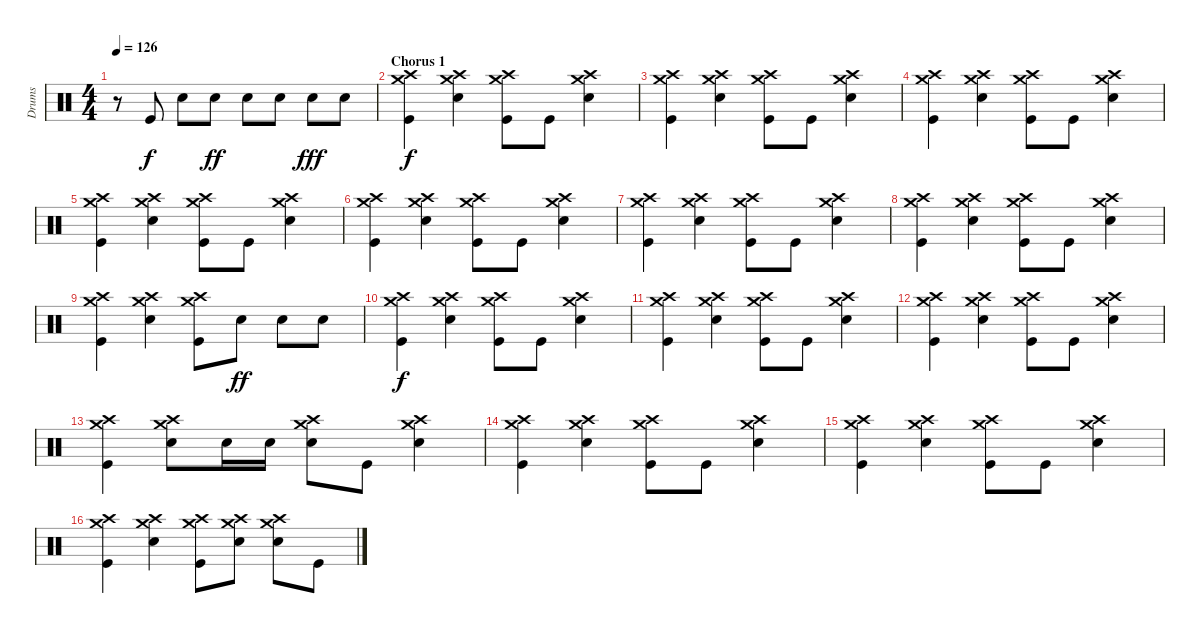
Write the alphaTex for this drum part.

\track ("Drums" "Drums") {instrument percussion}
\staff {score}
\articulation defaults
\ts (4 4)
\tempo 126
\clef neutral
\ks c
r.8{dy f} "Kick (hit)".8 "Snare (hit) 2".8 "Snare (hit) 2".8{dy ff} "Snare (hit) 2".8 "Snare (hit) 2".8 "Snare (hit) 2".8{dy fff} "Snare (hit) 2".8 |
\section ("" "Chorus 1")
("Crash high (hit)" "Crash medium (hit)" "Kick (hit)").4{dy f} ("Crash high (hit)" "Crash medium (hit)" "Snare (hit) 2").4 ("Crash high (hit)" "Crash medium (hit)" "Kick (hit)").8 "Kick (hit)".8 ("Crash high (hit)" "Crash medium (hit)" "Snare (hit) 2").4 |
("Crash high (hit)" "Crash medium (hit)" "Kick (hit)").4 ("Crash high (hit)" "Crash medium (hit)" "Snare (hit) 2").4 ("Crash high (hit)" "Crash medium (hit)" "Kick (hit)").8 "Kick (hit)".8 ("Crash high (hit)" "Crash medium (hit)" "Snare (hit) 2").4 |
("Crash high (hit)" "Crash medium (hit)" "Kick (hit)").4 ("Crash high (hit)" "Crash medium (hit)" "Snare (hit) 2").4 ("Crash high (hit)" "Crash medium (hit)" "Kick (hit)").8 "Kick (hit)".8 ("Crash high (hit)" "Crash medium (hit)" "Snare (hit) 2").4 |
("Crash high (hit)" "Crash medium (hit)" "Kick (hit)").4 ("Crash high (hit)" "Crash medium (hit)" "Snare (hit) 2").4 ("Crash high (hit)" "Crash medium (hit)" "Kick (hit)").8 "Kick (hit)".8 ("Crash high (hit)" "Crash medium (hit)" "Snare (hit) 2").4 |
("Crash high (hit)" "Crash medium (hit)" "Kick (hit)").4 ("Crash high (hit)" "Crash medium (hit)" "Snare (hit) 2").4 ("Crash high (hit)" "Crash medium (hit)" "Kick (hit)").8 "Kick (hit)".8 ("Crash high (hit)" "Crash medium (hit)" "Snare (hit) 2").4 |
("Crash high (hit)" "Crash medium (hit)" "Kick (hit)").4 ("Crash high (hit)" "Crash medium (hit)" "Snare (hit) 2").4 ("Crash high (hit)" "Crash medium (hit)" "Kick (hit)").8 "Kick (hit)".8 ("Crash high (hit)" "Crash medium (hit)" "Snare (hit) 2").4 |
("Crash high (hit)" "Crash medium (hit)" "Kick (hit)").4 ("Crash high (hit)" "Crash medium (hit)" "Snare (hit) 2").4 ("Crash high (hit)" "Crash medium (hit)" "Kick (hit)").8 "Kick (hit)".8 ("Crash high (hit)" "Crash medium (hit)" "Snare (hit) 2").4 |
("Crash high (hit)" "Crash medium (hit)" "Kick (hit)").4 ("Crash high (hit)" "Crash medium (hit)" "Snare (hit) 2").4 ("Crash high (hit)" "Crash medium (hit)" "Kick (hit)").8 "Snare (hit) 2".8{dy ff} "Snare (hit) 2".8 "Snare (hit) 2".8 |
("Crash high (hit)" "Crash medium (hit)" "Kick (hit)").4{dy f} ("Crash high (hit)" "Crash medium (hit)" "Snare (hit) 2").4 ("Crash high (hit)" "Crash medium (hit)" "Kick (hit)").8 "Kick (hit)".8 ("Crash high (hit)" "Crash medium (hit)" "Snare (hit) 2").4 |
("Crash high (hit)" "Crash medium (hit)" "Kick (hit)").4 ("Crash high (hit)" "Crash medium (hit)" "Snare (hit) 2").4 ("Crash high (hit)" "Crash medium (hit)" "Kick (hit)").8 "Kick (hit)".8 ("Crash high (hit)" "Crash medium (hit)" "Snare (hit) 2").4 |
("Crash high (hit)" "Crash medium (hit)" "Kick (hit)").4 ("Crash high (hit)" "Crash medium (hit)" "Snare (hit) 2").4 ("Crash high (hit)" "Crash medium (hit)" "Kick (hit)").8 "Kick (hit)".8 ("Crash high (hit)" "Crash medium (hit)" "Snare (hit) 2").4 |
("Crash high (hit)" "Crash medium (hit)" "Kick (hit)").4 ("Crash high (hit)" "Crash medium (hit)" "Snare (hit) 2").8 "Snare (hit) 2".16 "Snare (hit) 2".16 ("Crash high (hit)" "Crash medium (hit)" "Snare (hit) 2").8 "Kick (hit)".8 ("Crash high (hit)" "Crash medium (hit)" "Snare (hit) 2").4 |
("Crash high (hit)" "Crash medium (hit)" "Kick (hit)").4 ("Crash high (hit)" "Crash medium (hit)" "Snare (hit) 2").4 ("Crash high (hit)" "Crash medium (hit)" "Kick (hit)").8 "Kick (hit)".8 ("Crash high (hit)" "Crash medium (hit)" "Snare (hit) 2").4 |
("Crash high (hit)" "Crash medium (hit)" "Kick (hit)").4 ("Crash high (hit)" "Crash medium (hit)" "Snare (hit) 2").4 ("Crash high (hit)" "Crash medium (hit)" "Kick (hit)").8 "Kick (hit)".8 ("Crash high (hit)" "Crash medium (hit)" "Snare (hit) 2").4 |
("Crash high (hit)" "Crash medium (hit)" "Kick (hit)").4 ("Crash high (hit)" "Crash medium (hit)" "Snare (hit) 2").4 ("Crash high (hit)" "Crash medium (hit)" "Kick (hit)").8 ("Crash high (hit)" "Crash medium (hit)" "Snare (hit) 2").8 ("Crash high (hit)" "Crash medium (hit)" "Snare (hit) 2").8 "Kick (hit)".8
